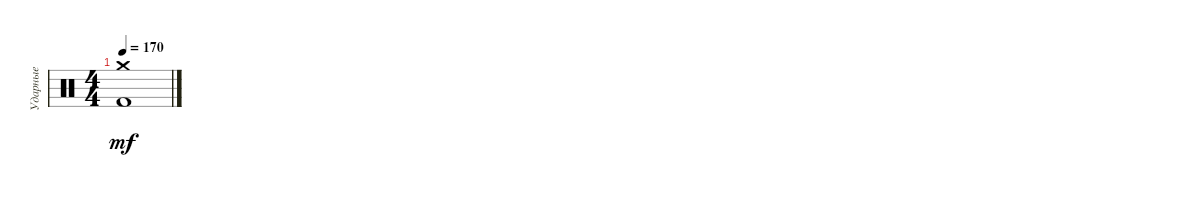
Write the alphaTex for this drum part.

\track ("Ударные" "Ударные") {instrument percussion}
\staff {score}
\articulation defaults
\ts (4 4)
\tempo 170
\clef neutral
\ks c
("Kick (hit) 2" "Crash medium (hit)").1{dy mf}
